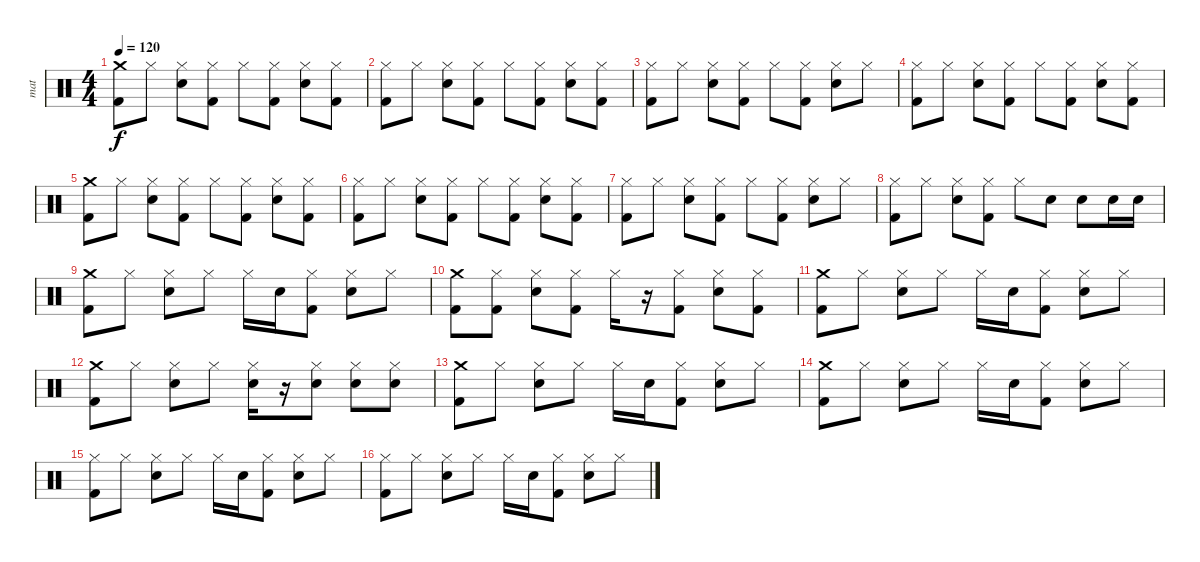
\track ("mat" "mat") {instrument percussion}
\staff {score}
\articulation defaults
\ts (4 4)
\tempo 120
\clef neutral
\ks c
("Kick (hit) 2" "Crash medium (hit)").8{dy f} "Hi-Hat (closed)".8 ("Snare (hit) 2" "Hi-Hat (closed)").8 ("Kick (hit) 2" "Hi-Hat (closed)").8 "Hi-Hat (closed)".8 ("Kick (hit) 2" "Hi-Hat (closed)").8 ("Snare (hit) 2" "Hi-Hat (closed)").8 ("Kick (hit) 2" "Hi-Hat (closed)").8 |
("Kick (hit) 2" "Hi-Hat (closed)").8 "Hi-Hat (closed)".8 ("Snare (hit) 2" "Hi-Hat (closed)").8 ("Kick (hit) 2" "Hi-Hat (closed)").8 "Hi-Hat (closed)".8 ("Kick (hit) 2" "Hi-Hat (closed)").8 ("Snare (hit) 2" "Hi-Hat (closed)").8 ("Kick (hit) 2" "Hi-Hat (closed)").8 |
("Kick (hit) 2" "Hi-Hat (closed)").8 "Hi-Hat (closed)".8 ("Snare (hit) 2" "Hi-Hat (closed)").8 ("Kick (hit) 2" "Hi-Hat (closed)").8 "Hi-Hat (closed)".8 ("Kick (hit) 2" "Hi-Hat (closed)").8 ("Snare (hit) 2" "Hi-Hat (closed)").8 "Hi-Hat (closed)".8 |
("Kick (hit) 2" "Hi-Hat (closed)").8 "Hi-Hat (closed)".8 ("Snare (hit) 2" "Hi-Hat (closed)").8 ("Kick (hit) 2" "Hi-Hat (closed)").8 "Hi-Hat (closed)".8 ("Kick (hit) 2" "Hi-Hat (closed)").8 ("Snare (hit) 2" "Hi-Hat (closed)").8 ("Kick (hit) 2" "Hi-Hat (closed)").8 |
("Kick (hit) 2" "Crash medium (hit)").8 "Hi-Hat (closed)".8 ("Snare (hit) 2" "Hi-Hat (closed)").8 ("Kick (hit) 2" "Hi-Hat (closed)").8 "Hi-Hat (closed)".8 ("Kick (hit) 2" "Hi-Hat (closed)").8 ("Snare (hit) 2" "Hi-Hat (closed)").8 ("Kick (hit) 2" "Hi-Hat (closed)").8 |
("Kick (hit) 2" "Hi-Hat (closed)").8 "Hi-Hat (closed)".8 ("Snare (hit) 2" "Hi-Hat (closed)").8 ("Kick (hit) 2" "Hi-Hat (closed)").8 "Hi-Hat (closed)".8 ("Kick (hit) 2" "Hi-Hat (closed)").8 ("Snare (hit) 2" "Hi-Hat (closed)").8 ("Kick (hit) 2" "Hi-Hat (closed)").8 |
("Kick (hit) 2" "Hi-Hat (closed)").8 "Hi-Hat (closed)".8 ("Snare (hit) 2" "Hi-Hat (closed)").8 ("Kick (hit) 2" "Hi-Hat (closed)").8 "Hi-Hat (closed)".8 ("Kick (hit) 2" "Hi-Hat (closed)").8 ("Snare (hit) 2" "Hi-Hat (closed)").8 "Hi-Hat (closed)".8 |
("Kick (hit) 2" "Hi-Hat (closed)").8 "Hi-Hat (closed)".8 ("Snare (hit) 2" "Hi-Hat (closed)").8 ("Kick (hit) 2" "Hi-Hat (closed)").8 "Hi-Hat (closed)".8 "Snare (hit) 2".8 "Snare (hit) 2".8 "Snare (hit) 2".16 "Snare (hit) 2".16 |
("Kick (hit) 2" "Crash medium (hit)").8 "Hi-Hat (closed)".8 ("Snare (hit) 2" "Hi-Hat (closed)").8 "Hi-Hat (closed)".8 "Hi-Hat (closed)".16 "Snare (hit) 2".16 ("Kick (hit) 2" "Hi-Hat (closed)").8 ("Snare (hit) 2" "Hi-Hat (closed)").8 "Hi-Hat (closed)".8 |
("Kick (hit) 2" "Crash medium (hit)").8 ("Kick (hit) 2" "Hi-Hat (closed)").8 ("Snare (hit) 2" "Hi-Hat (closed)").8 ("Kick (hit) 2" "Hi-Hat (closed)").8 "Hi-Hat (closed)".16 r.16 ("Kick (hit) 2" "Hi-Hat (closed)").8 ("Snare (hit) 2" "Hi-Hat (closed)").8 ("Kick (hit) 2" "Hi-Hat (closed)").8 |
("Kick (hit) 2" "Crash medium (hit)").8 "Hi-Hat (closed)".8 ("Snare (hit) 2" "Hi-Hat (closed)").8 "Hi-Hat (closed)".8 "Hi-Hat (closed)".16 "Snare (hit) 2".16 ("Kick (hit) 2" "Hi-Hat (closed)").8 ("Snare (hit) 2" "Hi-Hat (closed)").8 "Hi-Hat (closed)".8 |
("Kick (hit) 2" "Crash medium (hit)").8 "Hi-Hat (closed)".8 ("Snare (hit) 2" "Hi-Hat (closed)").8 "Hi-Hat (closed)".8 ("Snare (hit) 2" "Hi-Hat (closed)").16 r.16 ("Snare (hit) 2" "Hi-Hat (closed)").8 ("Snare (hit) 2" "Hi-Hat (closed)").8 ("Snare (hit) 2" "Hi-Hat (closed)").8 |
("Kick (hit) 2" "Crash medium (hit)").8 "Hi-Hat (closed)".8 ("Snare (hit) 2" "Hi-Hat (closed)").8 "Hi-Hat (closed)".8 "Hi-Hat (closed)".16 "Snare (hit) 2".16 ("Kick (hit) 2" "Hi-Hat (closed)").8 ("Snare (hit) 2" "Hi-Hat (closed)").8 "Hi-Hat (closed)".8 |
("Kick (hit) 2" "Crash medium (hit)").8 "Hi-Hat (closed)".8 ("Snare (hit) 2" "Hi-Hat (closed)").8 "Hi-Hat (closed)".8 "Hi-Hat (closed)".16 "Snare (hit) 2".16 ("Kick (hit) 2" "Hi-Hat (closed)").8 ("Snare (hit) 2" "Hi-Hat (closed)").8 "Hi-Hat (closed)".8 |
("Kick (hit) 2" "Hi-Hat (closed)").8 "Hi-Hat (closed)".8 ("Snare (hit) 2" "Hi-Hat (closed)").8 "Hi-Hat (closed)".8 "Hi-Hat (closed)".16 "Snare (hit) 2".16 ("Kick (hit) 2" "Hi-Hat (closed)").8 ("Snare (hit) 2" "Hi-Hat (closed)").8 "Hi-Hat (closed)".8 |
("Kick (hit) 2" "Hi-Hat (closed)").8 "Hi-Hat (closed)".8 ("Snare (hit) 2" "Hi-Hat (closed)").8 "Hi-Hat (closed)".8 "Hi-Hat (closed)".16 "Snare (hit) 2".16 ("Kick (hit) 2" "Hi-Hat (closed)").8 ("Snare (hit) 2" "Hi-Hat (closed)").8 "Hi-Hat (closed)".8
